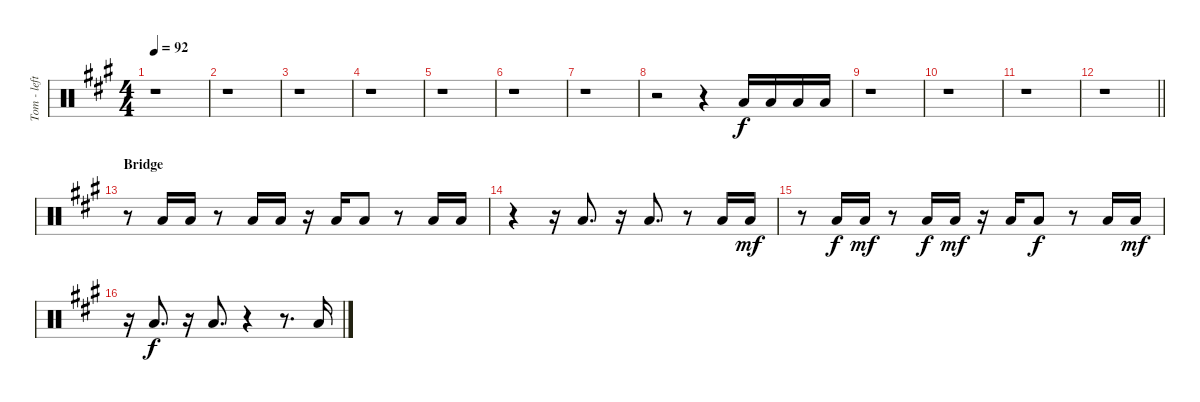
\track ("Tom - left" "Tom - left") {instrument percussion}
\staff {score}
\articulation defaults
\ts (4 4)
\tempo 92
\clef neutral
\ks f#minor
r.1{dy ff} |
r.1 |
r.1 |
r.1 |
r.1 |
r.1 |
r.1 |
r.2 r.4 "Low Tom (hit)".16{dy f beam Up} "Low Tom (hit)".16{beam Up} "Low Tom (hit)".16{beam Up} "Low Tom (hit)".16{beam Up} |
r.1 |
r.1 |
r.1 |
\barLineRight lightlight
r.1 |
\section ("" "Bridge")
r.8 "Low Tom (hit)".16{beam Up} "Low Tom (hit)".16{beam Up} r.8 "Low Tom (hit)".16{beam Up} "Low Tom (hit)".16{beam Up} r.16 "Low Tom (hit)".16{beam Up} "Low Tom (hit)".8{beam Up} r.8 "Low Tom (hit)".16{beam Up} "Low Tom (hit)".16{beam Up} |
r.4 r.16 "Low Tom (hit)".8{d beam Up} r.16 "Low Tom (hit)".8{d beam Up} r.8 "Low Tom (hit)".16{beam Up} "Low Tom (hit)".16{dy mf beam Up} |
r.8 "Low Tom (hit)".16{dy f beam Up} "Low Tom (hit)".16{dy mf beam Up} r.8 "Low Tom (hit)".16{dy f beam Up} "Low Tom (hit)".16{dy mf beam Up} r.16 "Low Tom (hit)".16{beam Up} "Low Tom (hit)".8{dy f beam Up} r.8 "Low Tom (hit)".16{beam Up} "Low Tom (hit)".16{dy mf beam Up} |
r.16 "Low Tom (hit)".8{d dy f beam Up} r.16 "Low Tom (hit)".8{d beam Up} r.4 r.8{d} "Low Tom (hit)".16{beam Up}
